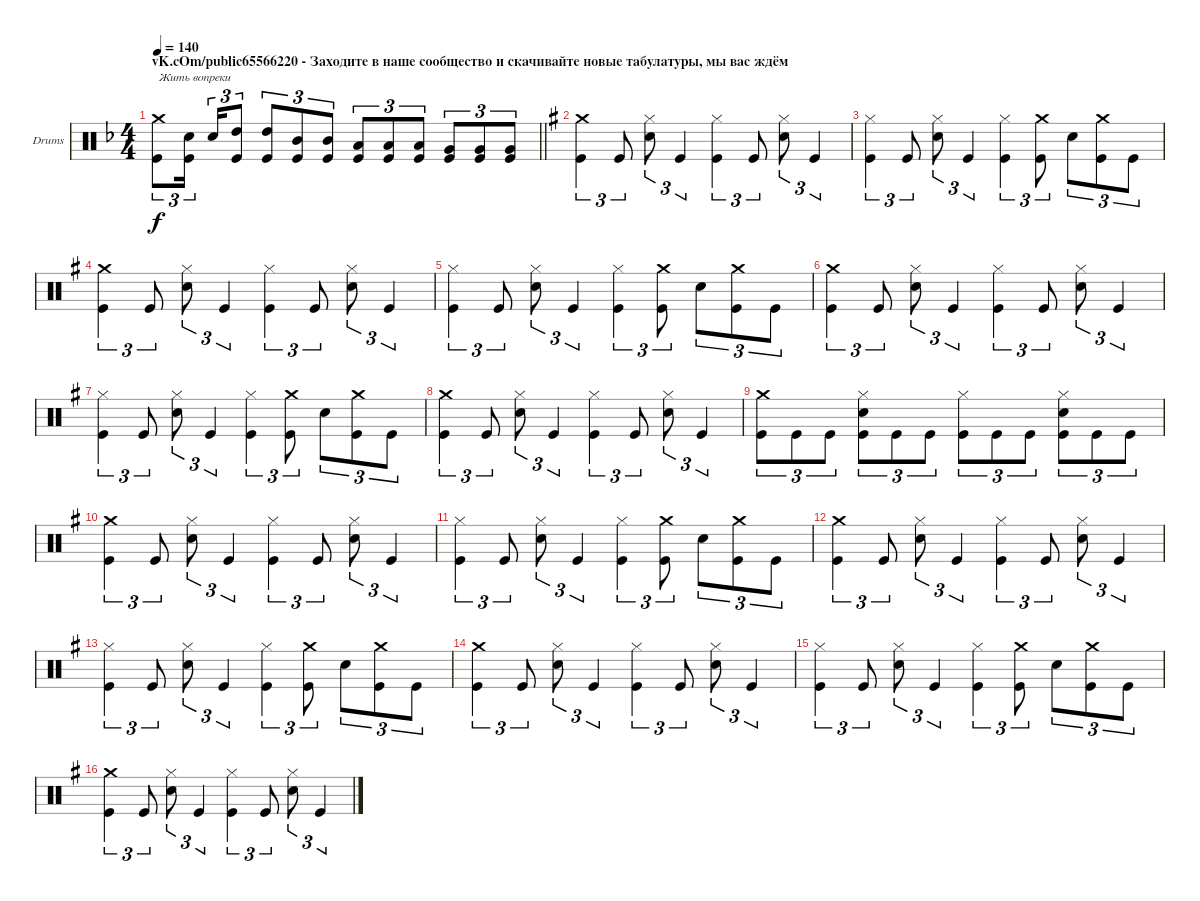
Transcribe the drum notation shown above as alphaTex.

\bracketExtendMode groupsimilarinstruments
\firstSystemTrackNameOrientation horizontal
\otherSystemsTrackNameOrientation horizontal
\track ("Александр Манякин" "Drums") {instrument percussion}
\staff {score}
\articulation defaults
\ts (4 4)
\beaming (8 2 2 2 2)
\section ("" "vK.cOm/public65566220 - Заходите в наше сообщество и скачивайте новые табулатуры, мы вас ждём")
\tempo 140
\clef neutral
\barLineRight lightlight
\ks dminor
("Kick (hit)" "Crash medium (hit)").8{tu (3 2) txt "Жить вопреки" dy f} ("Kick (hit)" "Snare (hit) 2").16{tu (3 2)} "Snare (hit) 2".16{tu (3 2)} ("High Tom (hit)" "Kick (hit)").8{tu (3 2)} ("High Tom (hit)" "Kick (hit)").8{tu (3 2)} ("Mid Tom (hit)" "Kick (hit)").8{tu (3 2)} ("Mid Tom (hit)" "Kick (hit)").8{tu (3 2)} ("Kick (hit)" "Low Tom (hit)").8{tu (3 2)} ("Kick (hit)" "Low Tom (hit)").8{tu (3 2)} ("Kick (hit)" "Low Tom (hit)").8{tu (3 2)} ("Kick (hit)" "Very Low Tom (hit)").8{tu (3 2)} ("Kick (hit)" "Very Low Tom (hit)").8{tu (3 2)} ("Kick (hit)" "Very Low Tom (hit)").8{tu (3 2)} |
\ks eminor
("Kick (hit)" "Crash medium (hit)").4{tu (3 2)} "Kick (hit)".8{tu (3 2)} ("Snare (hit) 2" "Hi-Hat (closed)").8{tu (3 2)} "Kick (hit)".4{tu (3 2)} ("Kick (hit)" "Hi-Hat (closed)").4{tu (3 2)} "Kick (hit)".8{tu (3 2)} ("Snare (hit) 2" "Hi-Hat (closed)").8{tu (3 2)} "Kick (hit)".4{tu (3 2)} |
("Kick (hit)" "Hi-Hat (closed)").4{tu (3 2)} "Kick (hit)".8{tu (3 2)} ("Snare (hit) 2" "Hi-Hat (closed)").8{tu (3 2)} "Kick (hit)".4{tu (3 2)} ("Kick (hit)" "Hi-Hat (closed)").4{tu (3 2)} ("Kick (hit)" "Crash medium (hit)").8{tu (3 2)} "Snare (hit) 2".8{tu (3 2)} ("Kick (hit)" "Crash medium (hit)").8{tu (3 2)} "Kick (hit)".8{tu (3 2)} |
("Kick (hit)" "Crash medium (hit)").4{tu (3 2)} "Kick (hit)".8{tu (3 2)} ("Snare (hit) 2" "Hi-Hat (closed)").8{tu (3 2)} "Kick (hit)".4{tu (3 2)} ("Kick (hit)" "Hi-Hat (closed)").4{tu (3 2)} "Kick (hit)".8{tu (3 2)} ("Snare (hit) 2" "Hi-Hat (closed)").8{tu (3 2)} "Kick (hit)".4{tu (3 2)} |
("Kick (hit)" "Hi-Hat (closed)").4{tu (3 2)} "Kick (hit)".8{tu (3 2)} ("Snare (hit) 2" "Hi-Hat (closed)").8{tu (3 2)} "Kick (hit)".4{tu (3 2)} ("Kick (hit)" "Hi-Hat (closed)").4{tu (3 2)} ("Kick (hit)" "Crash medium (hit)").8{tu (3 2)} "Snare (hit) 2".8{tu (3 2)} ("Kick (hit)" "Crash medium (hit)").8{tu (3 2)} "Kick (hit)".8{tu (3 2)} |
("Kick (hit)" "Crash medium (hit)").4{tu (3 2)} "Kick (hit)".8{tu (3 2)} ("Snare (hit) 2" "Hi-Hat (closed)").8{tu (3 2)} "Kick (hit)".4{tu (3 2)} ("Kick (hit)" "Hi-Hat (closed)").4{tu (3 2)} "Kick (hit)".8{tu (3 2)} ("Snare (hit) 2" "Hi-Hat (closed)").8{tu (3 2)} "Kick (hit)".4{tu (3 2)} |
("Kick (hit)" "Hi-Hat (closed)").4{tu (3 2)} "Kick (hit)".8{tu (3 2)} ("Snare (hit) 2" "Hi-Hat (closed)").8{tu (3 2)} "Kick (hit)".4{tu (3 2)} ("Kick (hit)" "Hi-Hat (closed)").4{tu (3 2)} ("Kick (hit)" "Crash medium (hit)").8{tu (3 2)} "Snare (hit) 2".8{tu (3 2)} ("Kick (hit)" "Crash medium (hit)").8{tu (3 2)} "Kick (hit)".8{tu (3 2)} |
("Kick (hit)" "Crash medium (hit)").4{tu (3 2)} "Kick (hit)".8{tu (3 2)} ("Snare (hit) 2" "Hi-Hat (closed)").8{tu (3 2)} "Kick (hit)".4{tu (3 2)} ("Kick (hit)" "Hi-Hat (closed)").4{tu (3 2)} "Kick (hit)".8{tu (3 2)} ("Snare (hit) 2" "Hi-Hat (closed)").8{tu (3 2)} "Kick (hit)".4{tu (3 2)} |
("Kick (hit)" "Crash medium (hit)").8{tu (3 2)} "Kick (hit)".8{tu (3 2)} "Kick (hit)".8{tu (3 2)} ("Snare (hit) 2" "Hi-Hat (closed)" "Kick (hit)").8{tu (3 2)} "Kick (hit)".8{tu (3 2)} "Kick (hit)".8{tu (3 2)} ("Kick (hit)" "Hi-Hat (closed)").8{tu (3 2)} "Kick (hit)".8{tu (3 2)} "Kick (hit)".8{tu (3 2)} ("Snare (hit) 2" "Hi-Hat (closed)" "Kick (hit)").8{tu (3 2)} "Kick (hit)".8{tu (3 2)} "Kick (hit)".8{tu (3 2)} |
("Kick (hit)" "Crash medium (hit)").4{tu (3 2)} "Kick (hit)".8{tu (3 2)} ("Snare (hit) 2" "Hi-Hat (closed)").8{tu (3 2)} "Kick (hit)".4{tu (3 2)} ("Kick (hit)" "Hi-Hat (closed)").4{tu (3 2)} "Kick (hit)".8{tu (3 2)} ("Snare (hit) 2" "Hi-Hat (closed)").8{tu (3 2)} "Kick (hit)".4{tu (3 2)} |
("Kick (hit)" "Hi-Hat (closed)").4{tu (3 2)} "Kick (hit)".8{tu (3 2)} ("Snare (hit) 2" "Hi-Hat (closed)").8{tu (3 2)} "Kick (hit)".4{tu (3 2)} ("Kick (hit)" "Hi-Hat (closed)").4{tu (3 2)} ("Kick (hit)" "Crash medium (hit)").8{tu (3 2)} "Snare (hit) 2".8{tu (3 2)} ("Kick (hit)" "Crash medium (hit)").8{tu (3 2)} "Kick (hit)".8{tu (3 2)} |
("Kick (hit)" "Crash medium (hit)").4{tu (3 2)} "Kick (hit)".8{tu (3 2)} ("Snare (hit) 2" "Hi-Hat (closed)").8{tu (3 2)} "Kick (hit)".4{tu (3 2)} ("Kick (hit)" "Hi-Hat (closed)").4{tu (3 2)} "Kick (hit)".8{tu (3 2)} ("Snare (hit) 2" "Hi-Hat (closed)").8{tu (3 2)} "Kick (hit)".4{tu (3 2)} |
("Kick (hit)" "Hi-Hat (closed)").4{tu (3 2)} "Kick (hit)".8{tu (3 2)} ("Snare (hit) 2" "Hi-Hat (closed)").8{tu (3 2)} "Kick (hit)".4{tu (3 2)} ("Kick (hit)" "Hi-Hat (closed)").4{tu (3 2)} ("Kick (hit)" "Crash medium (hit)").8{tu (3 2)} "Snare (hit) 2".8{tu (3 2)} ("Kick (hit)" "Crash medium (hit)").8{tu (3 2)} "Kick (hit)".8{tu (3 2)} |
("Kick (hit)" "Crash medium (hit)").4{tu (3 2)} "Kick (hit)".8{tu (3 2)} ("Snare (hit) 2" "Hi-Hat (closed)").8{tu (3 2)} "Kick (hit)".4{tu (3 2)} ("Kick (hit)" "Hi-Hat (closed)").4{tu (3 2)} "Kick (hit)".8{tu (3 2)} ("Snare (hit) 2" "Hi-Hat (closed)").8{tu (3 2)} "Kick (hit)".4{tu (3 2)} |
("Kick (hit)" "Hi-Hat (closed)").4{tu (3 2)} "Kick (hit)".8{tu (3 2)} ("Snare (hit) 2" "Hi-Hat (closed)").8{tu (3 2)} "Kick (hit)".4{tu (3 2)} ("Kick (hit)" "Hi-Hat (closed)").4{tu (3 2)} ("Kick (hit)" "Crash medium (hit)").8{tu (3 2)} "Snare (hit) 2".8{tu (3 2)} ("Kick (hit)" "Crash medium (hit)").8{tu (3 2)} "Kick (hit)".8{tu (3 2)} |
("Kick (hit)" "Crash medium (hit)").4{tu (3 2)} "Kick (hit)".8{tu (3 2)} ("Snare (hit) 2" "Hi-Hat (closed)").8{tu (3 2)} "Kick (hit)".4{tu (3 2)} ("Kick (hit)" "Hi-Hat (closed)").4{tu (3 2)} "Kick (hit)".8{tu (3 2)} ("Snare (hit) 2" "Hi-Hat (closed)").8{tu (3 2)} "Kick (hit)".4{tu (3 2)}
